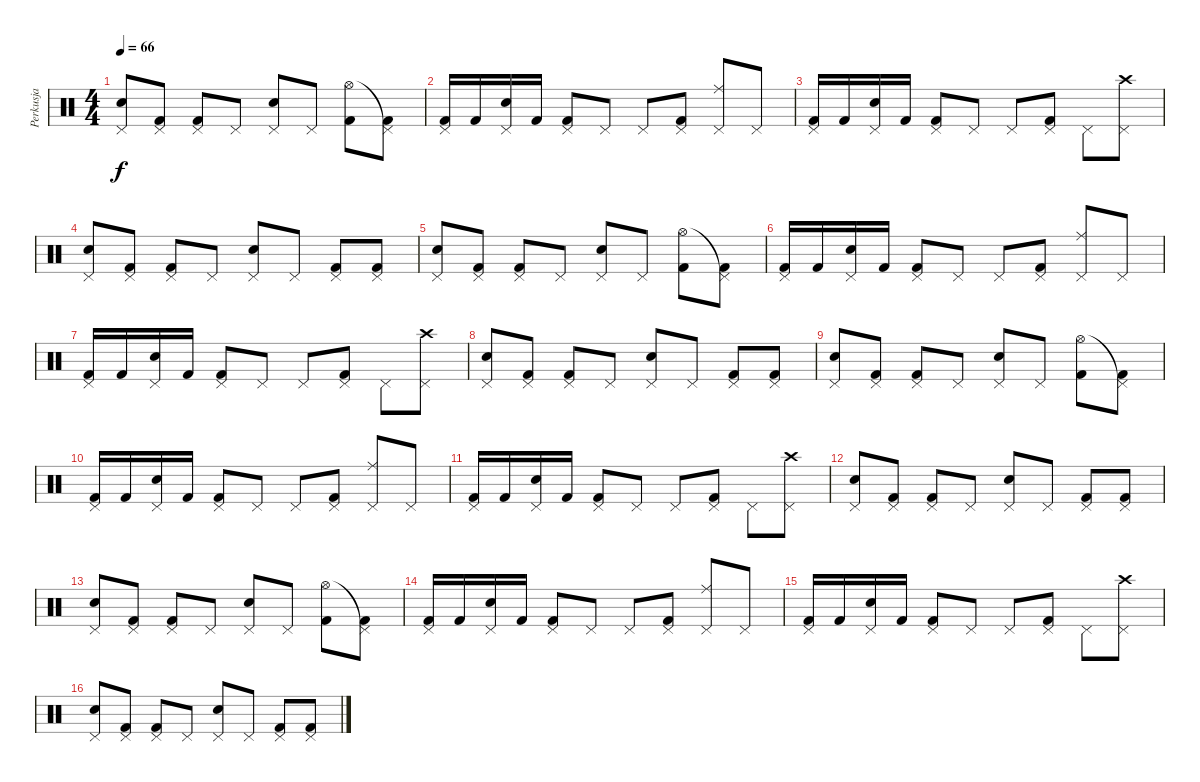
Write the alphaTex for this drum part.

\track ("Perkusja" "Perkusja") {instrument percussion}
\staff {score}
\articulation defaults
\ts (4 4)
\tempo 66
\clef neutral
\ks c
("Snare (hit) 2" "Pedal Hi-Hat (hit)").8{dy f} ("Kick (hit) 2" "Pedal Hi-Hat (hit)").8 ("Kick (hit) 2" "Pedal Hi-Hat (hit)").8 "Pedal Hi-Hat (hit)".8 ("Snare (hit) 2" "Pedal Hi-Hat (hit)").8 "Pedal Hi-Hat (hit)".8 ("Kick (hit) 2" "Hi-Hat (open)").8 ("Kick (hit) 2" "Pedal Hi-Hat (hit)"{t}).8 |
("Kick (hit) 2" "Pedal Hi-Hat (hit)").16 "Kick (hit) 2".16 ("Snare (hit) 2" "Pedal Hi-Hat (hit)").16 "Kick (hit) 2".16 ("Kick (hit) 2" "Pedal Hi-Hat (hit)").8 "Pedal Hi-Hat (hit)".8 "Pedal Hi-Hat (hit)".8 ("Kick (hit) 2" "Pedal Hi-Hat (hit)").8 ("Ride (middle)" "Pedal Hi-Hat (hit)").8 "Pedal Hi-Hat (hit)".8 |
("Kick (hit) 2" "Pedal Hi-Hat (hit)").16 "Kick (hit) 2".16 ("Snare (hit) 2" "Pedal Hi-Hat (hit)").16 "Kick (hit) 2".16 ("Kick (hit) 2" "Pedal Hi-Hat (hit)").8 "Pedal Hi-Hat (hit)".8 "Pedal Hi-Hat (hit)".8 ("Kick (hit) 2" "Pedal Hi-Hat (hit)").8 "Pedal Hi-Hat (hit)".8 ("Crash high (hit)" "Pedal Hi-Hat (hit)").8 |
("Snare (hit) 2" "Pedal Hi-Hat (hit)").8 ("Kick (hit) 2" "Pedal Hi-Hat (hit)").8 ("Kick (hit) 2" "Pedal Hi-Hat (hit)").8 "Pedal Hi-Hat (hit)".8 ("Snare (hit) 2" "Pedal Hi-Hat (hit)").8 "Pedal Hi-Hat (hit)".8 ("Kick (hit) 2" "Pedal Hi-Hat (hit)").8 ("Kick (hit) 2" "Pedal Hi-Hat (hit)").8 |
("Snare (hit) 2" "Pedal Hi-Hat (hit)").8 ("Kick (hit) 2" "Pedal Hi-Hat (hit)").8 ("Kick (hit) 2" "Pedal Hi-Hat (hit)").8 "Pedal Hi-Hat (hit)".8 ("Snare (hit) 2" "Pedal Hi-Hat (hit)").8 "Pedal Hi-Hat (hit)".8 ("Kick (hit) 2" "Hi-Hat (open)").8 ("Kick (hit) 2" "Pedal Hi-Hat (hit)"{t}).8 |
("Kick (hit) 2" "Pedal Hi-Hat (hit)").16 "Kick (hit) 2".16 ("Snare (hit) 2" "Pedal Hi-Hat (hit)").16 "Kick (hit) 2".16 ("Kick (hit) 2" "Pedal Hi-Hat (hit)").8 "Pedal Hi-Hat (hit)".8 "Pedal Hi-Hat (hit)".8 ("Kick (hit) 2" "Pedal Hi-Hat (hit)").8 ("Ride (middle)" "Pedal Hi-Hat (hit)").8 "Pedal Hi-Hat (hit)".8 |
("Kick (hit) 2" "Pedal Hi-Hat (hit)").16 "Kick (hit) 2".16 ("Snare (hit) 2" "Pedal Hi-Hat (hit)").16 "Kick (hit) 2".16 ("Kick (hit) 2" "Pedal Hi-Hat (hit)").8 "Pedal Hi-Hat (hit)".8 "Pedal Hi-Hat (hit)".8 ("Kick (hit) 2" "Pedal Hi-Hat (hit)").8 "Pedal Hi-Hat (hit)".8 ("Crash high (hit)" "Pedal Hi-Hat (hit)").8 |
("Snare (hit) 2" "Pedal Hi-Hat (hit)").8 ("Kick (hit) 2" "Pedal Hi-Hat (hit)").8 ("Kick (hit) 2" "Pedal Hi-Hat (hit)").8 "Pedal Hi-Hat (hit)".8 ("Snare (hit) 2" "Pedal Hi-Hat (hit)").8 "Pedal Hi-Hat (hit)".8 ("Kick (hit) 2" "Pedal Hi-Hat (hit)").8 ("Kick (hit) 2" "Pedal Hi-Hat (hit)").8 |
("Snare (hit) 2" "Pedal Hi-Hat (hit)").8 ("Kick (hit) 2" "Pedal Hi-Hat (hit)").8 ("Kick (hit) 2" "Pedal Hi-Hat (hit)").8 "Pedal Hi-Hat (hit)".8 ("Snare (hit) 2" "Pedal Hi-Hat (hit)").8 "Pedal Hi-Hat (hit)".8 ("Kick (hit) 2" "Hi-Hat (open)").8 ("Kick (hit) 2" "Pedal Hi-Hat (hit)"{t}).8 |
("Kick (hit) 2" "Pedal Hi-Hat (hit)").16 "Kick (hit) 2".16 ("Snare (hit) 2" "Pedal Hi-Hat (hit)").16 "Kick (hit) 2".16 ("Kick (hit) 2" "Pedal Hi-Hat (hit)").8 "Pedal Hi-Hat (hit)".8 "Pedal Hi-Hat (hit)".8 ("Kick (hit) 2" "Pedal Hi-Hat (hit)").8 ("Ride (middle)" "Pedal Hi-Hat (hit)").8 "Pedal Hi-Hat (hit)".8 |
("Kick (hit) 2" "Pedal Hi-Hat (hit)").16 "Kick (hit) 2".16 ("Snare (hit) 2" "Pedal Hi-Hat (hit)").16 "Kick (hit) 2".16 ("Kick (hit) 2" "Pedal Hi-Hat (hit)").8 "Pedal Hi-Hat (hit)".8 "Pedal Hi-Hat (hit)".8 ("Kick (hit) 2" "Pedal Hi-Hat (hit)").8 "Pedal Hi-Hat (hit)".8 ("Crash high (hit)" "Pedal Hi-Hat (hit)").8 |
("Snare (hit) 2" "Pedal Hi-Hat (hit)").8 ("Kick (hit) 2" "Pedal Hi-Hat (hit)").8 ("Kick (hit) 2" "Pedal Hi-Hat (hit)").8 "Pedal Hi-Hat (hit)".8 ("Snare (hit) 2" "Pedal Hi-Hat (hit)").8 "Pedal Hi-Hat (hit)".8 ("Kick (hit) 2" "Pedal Hi-Hat (hit)").8 ("Kick (hit) 2" "Pedal Hi-Hat (hit)").8 |
("Snare (hit) 2" "Pedal Hi-Hat (hit)").8 ("Kick (hit) 2" "Pedal Hi-Hat (hit)").8 ("Kick (hit) 2" "Pedal Hi-Hat (hit)").8 "Pedal Hi-Hat (hit)".8 ("Snare (hit) 2" "Pedal Hi-Hat (hit)").8 "Pedal Hi-Hat (hit)".8 ("Kick (hit) 2" "Hi-Hat (open)").8 ("Kick (hit) 2" "Pedal Hi-Hat (hit)"{t}).8 |
("Kick (hit) 2" "Pedal Hi-Hat (hit)").16 "Kick (hit) 2".16 ("Snare (hit) 2" "Pedal Hi-Hat (hit)").16 "Kick (hit) 2".16 ("Kick (hit) 2" "Pedal Hi-Hat (hit)").8 "Pedal Hi-Hat (hit)".8 "Pedal Hi-Hat (hit)".8 ("Kick (hit) 2" "Pedal Hi-Hat (hit)").8 ("Ride (middle)" "Pedal Hi-Hat (hit)").8 "Pedal Hi-Hat (hit)".8 |
("Kick (hit) 2" "Pedal Hi-Hat (hit)").16 "Kick (hit) 2".16 ("Snare (hit) 2" "Pedal Hi-Hat (hit)").16 "Kick (hit) 2".16 ("Kick (hit) 2" "Pedal Hi-Hat (hit)").8 "Pedal Hi-Hat (hit)".8 "Pedal Hi-Hat (hit)".8 ("Kick (hit) 2" "Pedal Hi-Hat (hit)").8 "Pedal Hi-Hat (hit)".8 ("Crash high (hit)" "Pedal Hi-Hat (hit)").8 |
("Snare (hit) 2" "Pedal Hi-Hat (hit)").8 ("Kick (hit) 2" "Pedal Hi-Hat (hit)").8 ("Kick (hit) 2" "Pedal Hi-Hat (hit)").8 "Pedal Hi-Hat (hit)".8 ("Snare (hit) 2" "Pedal Hi-Hat (hit)").8 "Pedal Hi-Hat (hit)".8 ("Kick (hit) 2" "Pedal Hi-Hat (hit)").8 ("Kick (hit) 2" "Pedal Hi-Hat (hit)").8
